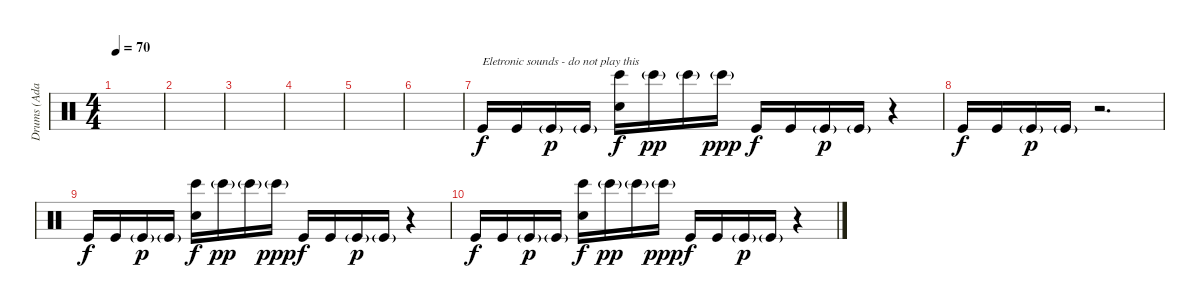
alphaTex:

\track ("Drums (Adam) " "Drums (Ada") {instrument percussion}
\staff {score}
\articulation defaults
\ts (4 4)
\tempo 70
\clef neutral
\ks c
|
|
|
|
|
|
"Kick (hit)".16{txt "Eletronic sounds - do not play this"} "Kick (hit)".16 "Kick (hit)"{g}.16{dy p} "Kick (hit)"{g}.16 ("Hand Clap (hit)" "Bongo High (hit)").16{dy f} "Bongo High (hit)"{g}.16{dy pp} "Bongo High (hit)"{g}.16 "Bongo High (hit)"{g}.16{dy ppp} "Kick (hit)".16{dy f} "Kick (hit)".16 "Kick (hit)"{g}.16{dy p} "Kick (hit)"{g}.16 r.4 |
"Kick (hit)".16{dy f} "Kick (hit)".16 "Kick (hit)"{g}.16{dy p} "Kick (hit)"{g}.16 r.2{d} |
"Kick (hit)".16{dy f} "Kick (hit)".16 "Kick (hit)"{g}.16{dy p} "Kick (hit)"{g}.16 ("Hand Clap (hit)" "Bongo High (hit)").16{dy f} "Bongo High (hit)"{g}.16{dy pp} "Bongo High (hit)"{g}.16 "Bongo High (hit)"{g}.16{dy ppp} "Kick (hit)".16{dy f} "Kick (hit)".16 "Kick (hit)"{g}.16{dy p} "Kick (hit)"{g}.16 r.4 |
"Kick (hit)".16{dy f} "Kick (hit)".16 "Kick (hit)"{g}.16{dy p} "Kick (hit)"{g}.16 ("Hand Clap (hit)" "Bongo High (hit)").16{dy f} "Bongo High (hit)"{g}.16{dy pp} "Bongo High (hit)"{g}.16 "Bongo High (hit)"{g}.16{dy ppp} "Kick (hit)".16{dy f} "Kick (hit)".16 "Kick (hit)"{g}.16{dy p} "Kick (hit)"{g}.16 r.4
